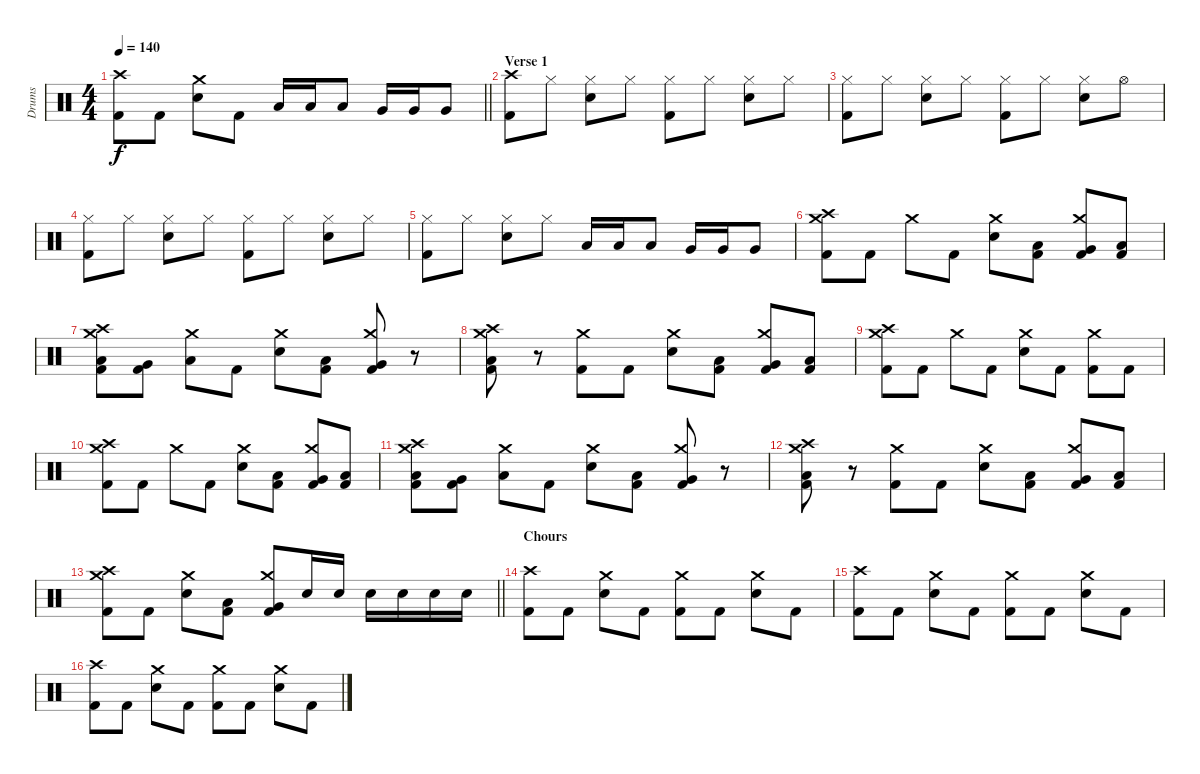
\track ("Drums" "Drums") {instrument percussion}
\staff {score}
\articulation defaults
\ts (4 4)
\tempo 140
\clef neutral
\barLineRight lightlight
\ks c
("Crash high (hit)" "Kick (hit) 2").8{dy f} "Kick (hit) 2".8 ("Crash medium (hit)" "Snare (hit) 2").8 "Kick (hit) 2".8 "Low Tom (hit)".16 "Low Tom (hit)".16 "Low Tom (hit)".8 "Very Low Tom (hit)".16 "Very Low Tom (hit)".16 "Very Low Tom (hit)".8 |
\section ("" "Verse 1")
("Crash high (hit)" "Kick (hit) 2").8 "Hi-Hat (closed)".8 ("Hi-Hat (closed)" "Snare (hit) 2").8 "Hi-Hat (closed)".8 ("Hi-Hat (closed)" "Kick (hit) 2").8 "Hi-Hat (closed)".8 ("Hi-Hat (closed)" "Snare (hit) 2").8 "Hi-Hat (closed)".8 |
("Hi-Hat (closed)" "Kick (hit) 2").8 "Hi-Hat (closed)".8 ("Hi-Hat (closed)" "Snare (hit) 2").8 "Hi-Hat (closed)".8 ("Hi-Hat (closed)" "Kick (hit) 2").8 "Hi-Hat (closed)".8 ("Hi-Hat (closed)" "Snare (hit) 2").8 "Hi-Hat (open)".8 |
("Hi-Hat (closed)" "Kick (hit) 2").8 "Hi-Hat (closed)".8 ("Hi-Hat (closed)" "Snare (hit) 2").8 "Hi-Hat (closed)".8 ("Hi-Hat (closed)" "Kick (hit) 2").8 "Hi-Hat (closed)".8 ("Hi-Hat (closed)" "Snare (hit) 2").8 "Hi-Hat (closed)".8 |
("Hi-Hat (closed)" "Kick (hit) 2").8 "Hi-Hat (closed)".8 ("Hi-Hat (closed)" "Snare (hit) 2").8 "Hi-Hat (closed)".8 "Low Tom (hit)".16 "Low Tom (hit)".16 "Low Tom (hit)".8 "Very Low Tom (hit)".16 "Very Low Tom (hit)".16 "Very Low Tom (hit)".8 |
("Crash high (hit)" "Crash medium (hit)" "Kick (hit) 2").8 "Kick (hit) 2".8 "Crash medium (hit)".8 "Kick (hit) 2".8 ("Crash medium (hit)" "Snare (hit) 2").8 ("Low Tom (hit)" "Kick (hit) 2").8 ("Crash medium (hit)" "Very Low Tom (hit)" "Kick (hit) 2").8 ("Low Floor Tom (hit)" "Kick (hit) 2").8 |
("Crash high (hit)" "Crash medium (hit)" "Low Tom (hit)" "Kick (hit) 2").8 ("Very Low Tom (hit)" "Kick (hit) 2").8 ("Crash medium (hit)" "Low Floor Tom (hit)").8 "Kick (hit) 2".8 ("Crash medium (hit)" "Snare (hit) 2").8 ("Low Tom (hit)" "Kick (hit) 2").8 ("Crash medium (hit)" "Very Low Tom (hit)" "Kick (hit) 2").8 r.8 |
("Crash high (hit)" "Crash medium (hit)" "Low Tom (hit)" "Kick (hit) 2").8 r.8 ("Crash medium (hit)" "Kick (hit) 2").8 "Kick (hit) 2".8 ("Crash medium (hit)" "Snare (hit) 2").8 ("Low Tom (hit)" "Kick (hit) 2").8 ("Crash medium (hit)" "Very Low Tom (hit)" "Kick (hit) 2").8 ("Low Floor Tom (hit)" "Kick (hit) 2").8 |
("Crash high (hit)" "Crash medium (hit)" "Kick (hit) 2").8 "Kick (hit) 2".8 "Crash medium (hit)".8 "Kick (hit) 2".8 ("Crash medium (hit)" "Snare (hit) 2").8 "Kick (hit) 2".8 ("Crash medium (hit)" "Kick (hit) 2").8 "Kick (hit) 2".8 |
("Crash high (hit)" "Crash medium (hit)" "Kick (hit) 2").8 "Kick (hit) 2".8 "Crash medium (hit)".8 "Kick (hit) 2".8 ("Crash medium (hit)" "Snare (hit) 2").8 ("Low Tom (hit)" "Kick (hit) 2").8 ("Crash medium (hit)" "Very Low Tom (hit)" "Kick (hit) 2").8 ("Low Floor Tom (hit)" "Kick (hit) 2").8 |
("Crash high (hit)" "Crash medium (hit)" "Low Tom (hit)" "Kick (hit) 2").8 ("Very Low Tom (hit)" "Kick (hit) 2").8 ("Crash medium (hit)" "Low Floor Tom (hit)").8 "Kick (hit) 2".8 ("Crash medium (hit)" "Snare (hit) 2").8 ("Low Tom (hit)" "Kick (hit) 2").8 ("Crash medium (hit)" "Very Low Tom (hit)" "Kick (hit) 2").8 r.8 |
("Crash high (hit)" "Crash medium (hit)" "Low Tom (hit)" "Kick (hit) 2").8 r.8 ("Crash medium (hit)" "Kick (hit) 2").8 "Kick (hit) 2".8 ("Crash medium (hit)" "Snare (hit) 2").8 ("Low Tom (hit)" "Kick (hit) 2").8 ("Crash medium (hit)" "Very Low Tom (hit)" "Kick (hit) 2").8 ("Low Floor Tom (hit)" "Kick (hit) 2").8 |
\barLineRight lightlight
("Crash high (hit)" "Crash medium (hit)" "Kick (hit) 2").8 "Kick (hit) 2".8 ("Crash medium (hit)" "Snare (hit) 2").8 ("Low Tom (hit)" "Kick (hit) 2").8 ("Crash medium (hit)" "Very Low Tom (hit)" "Kick (hit) 2").8 "Snare (hit) 2".16 "Snare (hit) 2".16 "Snare (hit) 2".16 "Snare (hit) 2".16 "Snare (hit) 2".16 "Snare (hit) 2".16 |
\section ("" "Chours")
("Crash high (hit)" "Kick (hit) 2").8 "Kick (hit) 2".8 ("Crash medium (hit)" "Snare (hit) 2").8 "Kick (hit) 2".8 ("Crash medium (hit)" "Kick (hit) 2").8 "Kick (hit) 2".8 ("Crash medium (hit)" "Snare (hit) 2").8 "Kick (hit) 2".8 |
("Crash high (hit)" "Kick (hit) 2").8 "Kick (hit) 2".8 ("Crash medium (hit)" "Snare (hit) 2").8 "Kick (hit) 2".8 ("Crash medium (hit)" "Kick (hit) 2").8 "Kick (hit) 2".8 ("Crash medium (hit)" "Snare (hit) 2").8 "Kick (hit) 2".8 |
("Crash high (hit)" "Kick (hit) 2").8 "Kick (hit) 2".8 ("Crash medium (hit)" "Snare (hit) 2").8 "Kick (hit) 2".8 ("Crash medium (hit)" "Kick (hit) 2").8 "Kick (hit) 2".8 ("Crash medium (hit)" "Snare (hit) 2").8 "Kick (hit) 2".8
